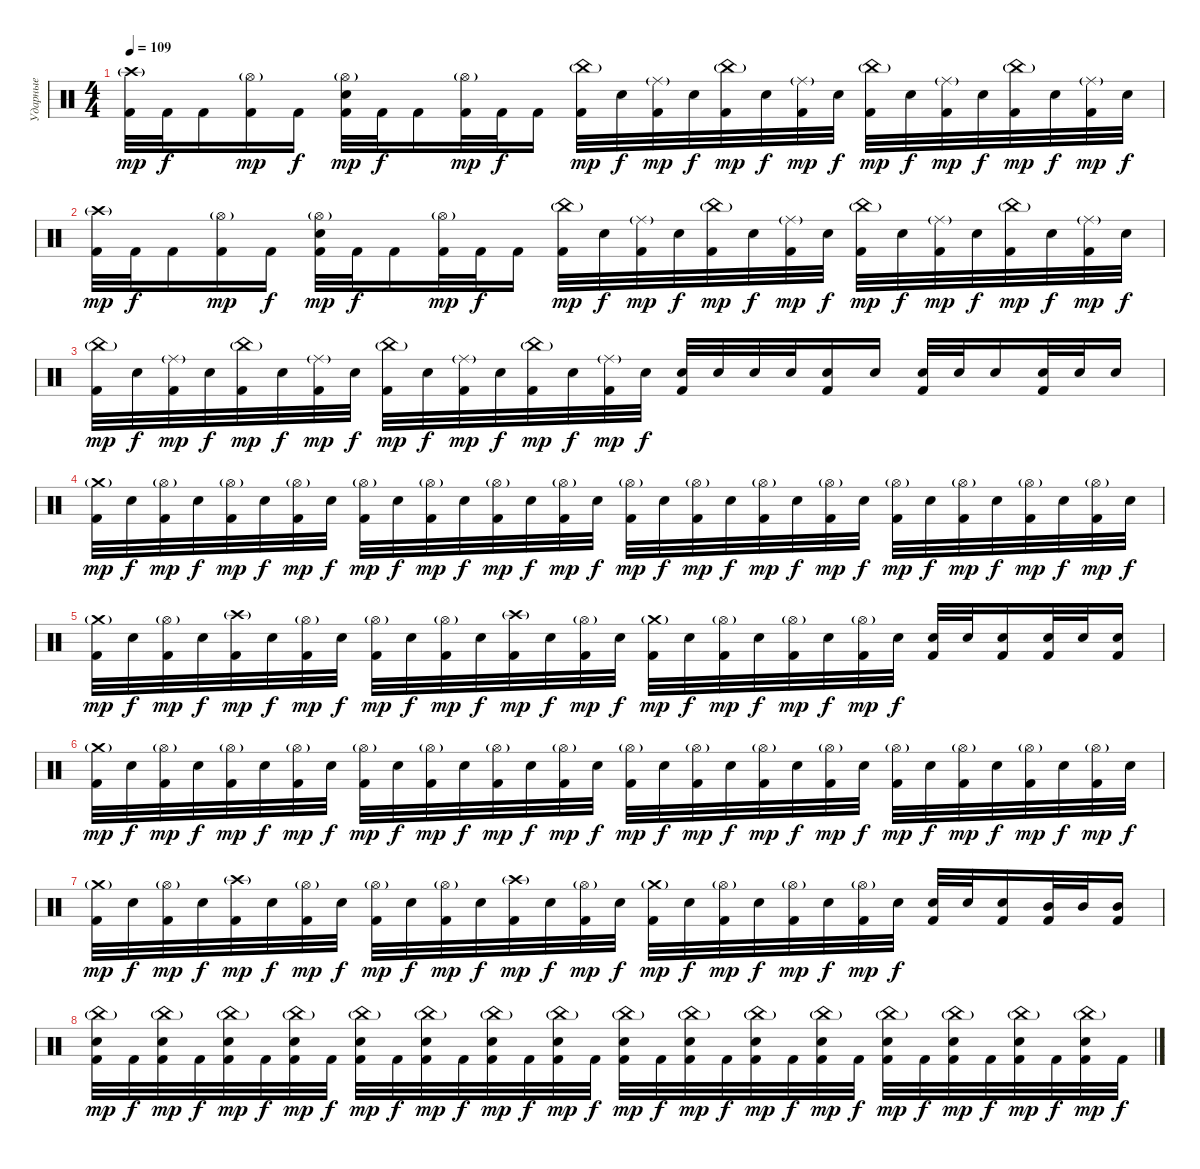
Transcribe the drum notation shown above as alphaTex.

\track ("Ударные" "Ударные") {instrument percussion}
\staff {score}
\articulation defaults
\ts (4 4)
\tempo 109
\clef neutral
\ks c
("Crash high (hit)"{g} "Kick (hit) 2").32{dy mp} "Kick (hit) 2".32{dy f} "Kick (hit) 2".16 ("Hi-Hat (open)"{g} "Kick (hit) 2").16{dy mp} "Kick (hit) 2".16{dy f} ("Hi-Hat (open)"{g} "Electric Snare (hit)" "Kick (hit) 2").32{dy mp} "Kick (hit) 2".32{dy f} "Kick (hit) 2".16 ("Hi-Hat (open)"{g} "Kick (hit) 2").32{dy mp} "Kick (hit) 2".32{dy f} "Kick (hit) 2".16 ("China (hit)"{g} "Kick (hit) 2").32{dy mp} "Electric Snare (hit)".32{dy f} ("Ride (middle)"{g} "Kick (hit) 2").32{dy mp} "Electric Snare (hit)".32{dy f} ("China (hit)"{g} "Kick (hit) 2").32{dy mp} "Electric Snare (hit)".32{dy f} ("Ride (middle)"{g} "Kick (hit) 2").32{dy mp} "Electric Snare (hit)".32{dy f} ("China (hit)"{g} "Kick (hit) 2").32{dy mp} "Electric Snare (hit)".32{dy f} ("Ride (middle)"{g} "Kick (hit) 2").32{dy mp} "Electric Snare (hit)".32{dy f} ("China (hit)"{g} "Kick (hit) 2").32{dy mp} "Electric Snare (hit)".32{dy f} ("Ride (middle)"{g} "Kick (hit) 2").32{dy mp} "Electric Snare (hit)".32{dy f} |
("Crash high (hit)"{g} "Kick (hit) 2").32{dy mp} "Kick (hit) 2".32{dy f} "Kick (hit) 2".16 ("Hi-Hat (open)"{g} "Kick (hit) 2").16{dy mp} "Kick (hit) 2".16{dy f} ("Hi-Hat (open)"{g} "Electric Snare (hit)" "Kick (hit) 2").32{dy mp} "Kick (hit) 2".32{dy f} "Kick (hit) 2".16 ("Hi-Hat (open)"{g} "Kick (hit) 2").32{dy mp} "Kick (hit) 2".32{dy f} "Kick (hit) 2".16 ("China (hit)"{g} "Kick (hit) 2").32{dy mp} "Electric Snare (hit)".32{dy f} ("Ride (middle)"{g} "Kick (hit) 2").32{dy mp} "Electric Snare (hit)".32{dy f} ("China (hit)"{g} "Kick (hit) 2").32{dy mp} "Electric Snare (hit)".32{dy f} ("Ride (middle)"{g} "Kick (hit) 2").32{dy mp} "Electric Snare (hit)".32{dy f} ("China (hit)"{g} "Kick (hit) 2").32{dy mp} "Electric Snare (hit)".32{dy f} ("Ride (middle)"{g} "Kick (hit) 2").32{dy mp} "Electric Snare (hit)".32{dy f} ("China (hit)"{g} "Kick (hit) 2").32{dy mp} "Electric Snare (hit)".32{dy f} ("Ride (middle)"{g} "Kick (hit) 2").32{dy mp} "Electric Snare (hit)".32{dy f} |
("China (hit)"{g} "Kick (hit) 2").32{dy mp} "Electric Snare (hit)".32{dy f} ("Ride (middle)"{g} "Kick (hit) 2").32{dy mp} "Electric Snare (hit)".32{dy f} ("China (hit)"{g} "Kick (hit) 2").32{dy mp} "Electric Snare (hit)".32{dy f} ("Ride (middle)"{g} "Kick (hit) 2").32{dy mp} "Electric Snare (hit)".32{dy f} ("China (hit)"{g} "Kick (hit) 2").32{dy mp} "Electric Snare (hit)".32{dy f} ("Ride (middle)"{g} "Kick (hit) 2").32{dy mp} "Electric Snare (hit)".32{dy f} ("China (hit)"{g} "Kick (hit) 2").32{dy mp} "Electric Snare (hit)".32{dy f} ("Ride (middle)"{g} "Kick (hit) 2").32{dy mp} "Electric Snare (hit)".32{dy f} ("Electric Snare (hit)" "Kick (hit) 2").32 "Electric Snare (hit)".32 "Electric Snare (hit)".32 "Electric Snare (hit)".32 ("Electric Snare (hit)" "Kick (hit) 2").16 "Electric Snare (hit)".16 ("Electric Snare (hit)" "Kick (hit) 2").32 "Electric Snare (hit)".32 "Electric Snare (hit)".16 ("Electric Snare (hit)" "Kick (hit) 2").32 "Electric Snare (hit)".32 "Electric Snare (hit)".16 |
("Crash medium (hit)"{g} "Kick (hit) 2").32{dy mp} "Electric Snare (hit)".32{dy f} ("Hi-Hat (open)"{g} "Kick (hit) 2").32{dy mp} "Electric Snare (hit)".32{dy f} ("Hi-Hat (open)"{g} "Kick (hit) 2").32{dy mp} "Electric Snare (hit)".32{dy f} ("Hi-Hat (open)"{g} "Kick (hit) 2").32{dy mp} "Electric Snare (hit)".32{dy f} ("Hi-Hat (open)"{g} "Kick (hit) 2").32{dy mp} "Electric Snare (hit)".32{dy f} ("Hi-Hat (open)"{g} "Kick (hit) 2").32{dy mp} "Electric Snare (hit)".32{dy f} ("Hi-Hat (open)"{g} "Kick (hit) 2").32{dy mp} "Electric Snare (hit)".32{dy f} ("Hi-Hat (open)"{g} "Kick (hit) 2").32{dy mp} "Electric Snare (hit)".32{dy f} ("Hi-Hat (open)"{g} "Kick (hit) 2").32{dy mp} "Electric Snare (hit)".32{dy f} ("Hi-Hat (open)"{g} "Kick (hit) 2").32{dy mp} "Electric Snare (hit)".32{dy f} ("Hi-Hat (open)"{g} "Kick (hit) 2").32{dy mp} "Electric Snare (hit)".32{dy f} ("Hi-Hat (open)"{g} "Kick (hit) 2").32{dy mp} "Electric Snare (hit)".32{dy f} ("Hi-Hat (open)"{g} "Kick (hit) 2").32{dy mp} "Electric Snare (hit)".32{dy f} ("Hi-Hat (open)"{g} "Kick (hit) 2").32{dy mp} "Electric Snare (hit)".32{dy f} ("Hi-Hat (open)"{g} "Kick (hit) 2").32{dy mp} "Electric Snare (hit)".32{dy f} ("Hi-Hat (open)"{g} "Kick (hit) 2").32{dy mp} "Electric Snare (hit)".32{dy f} |
("Crash medium (hit)"{g} "Kick (hit) 2").32{dy mp} "Electric Snare (hit)".32{dy f} ("Hi-Hat (open)"{g} "Kick (hit) 2").32{dy mp} "Electric Snare (hit)".32{dy f} ("Crash high (hit)"{g} "Kick (hit) 2").32{dy mp} "Electric Snare (hit)".32{dy f} ("Hi-Hat (open)"{g} "Kick (hit) 2").32{dy mp} "Electric Snare (hit)".32{dy f} ("Hi-Hat (open)"{g} "Kick (hit) 2").32{dy mp} "Electric Snare (hit)".32{dy f} ("Hi-Hat (open)"{g} "Kick (hit) 2").32{dy mp} "Electric Snare (hit)".32{dy f} ("Crash high (hit)"{g} "Kick (hit) 2").32{dy mp} "Electric Snare (hit)".32{dy f} ("Hi-Hat (open)"{g} "Kick (hit) 2").32{dy mp} "Electric Snare (hit)".32{dy f} ("Crash medium (hit)"{g} "Kick (hit) 2").32{dy mp} "Electric Snare (hit)".32{dy f} ("Hi-Hat (open)"{g} "Kick (hit) 2").32{dy mp} "Electric Snare (hit)".32{dy f} ("Hi-Hat (open)"{g} "Kick (hit) 2").32{dy mp} "Electric Snare (hit)".32{dy f} ("Hi-Hat (open)"{g} "Kick (hit) 2").32{dy mp} "Electric Snare (hit)".32{dy f} ("Electric Snare (hit)" "Kick (hit) 2").32 "Electric Snare (hit)".32 ("Electric Snare (hit)" "Kick (hit) 2").16 ("Electric Snare (hit)" "Kick (hit) 2").32 "Electric Snare (hit)".32 ("Electric Snare (hit)" "Kick (hit) 2").16 |
("Crash medium (hit)"{g} "Kick (hit) 2").32{dy mp} "Electric Snare (hit)".32{dy f} ("Hi-Hat (open)"{g} "Kick (hit) 2").32{dy mp} "Electric Snare (hit)".32{dy f} ("Hi-Hat (open)"{g} "Kick (hit) 2").32{dy mp} "Electric Snare (hit)".32{dy f} ("Hi-Hat (open)"{g} "Kick (hit) 2").32{dy mp} "Electric Snare (hit)".32{dy f} ("Hi-Hat (open)"{g} "Kick (hit) 2").32{dy mp} "Electric Snare (hit)".32{dy f} ("Hi-Hat (open)"{g} "Kick (hit) 2").32{dy mp} "Electric Snare (hit)".32{dy f} ("Hi-Hat (open)"{g} "Kick (hit) 2").32{dy mp} "Electric Snare (hit)".32{dy f} ("Hi-Hat (open)"{g} "Kick (hit) 2").32{dy mp} "Electric Snare (hit)".32{dy f} ("Hi-Hat (open)"{g} "Kick (hit) 2").32{dy mp} "Electric Snare (hit)".32{dy f} ("Hi-Hat (open)"{g} "Kick (hit) 2").32{dy mp} "Electric Snare (hit)".32{dy f} ("Hi-Hat (open)"{g} "Kick (hit) 2").32{dy mp} "Electric Snare (hit)".32{dy f} ("Hi-Hat (open)"{g} "Kick (hit) 2").32{dy mp} "Electric Snare (hit)".32{dy f} ("Hi-Hat (open)"{g} "Kick (hit) 2").32{dy mp} "Electric Snare (hit)".32{dy f} ("Hi-Hat (open)"{g} "Kick (hit) 2").32{dy mp} "Electric Snare (hit)".32{dy f} ("Hi-Hat (open)"{g} "Kick (hit) 2").32{dy mp} "Electric Snare (hit)".32{dy f} ("Hi-Hat (open)"{g} "Kick (hit) 2").32{dy mp} "Electric Snare (hit)".32{dy f} |
("Crash medium (hit)"{g} "Kick (hit) 2").32{dy mp} "Electric Snare (hit)".32{dy f} ("Hi-Hat (open)"{g} "Kick (hit) 2").32{dy mp} "Electric Snare (hit)".32{dy f} ("Crash high (hit)"{g} "Kick (hit) 2").32{dy mp} "Electric Snare (hit)".32{dy f} ("Hi-Hat (open)"{g} "Kick (hit) 2").32{dy mp} "Electric Snare (hit)".32{dy f} ("Hi-Hat (open)"{g} "Kick (hit) 2").32{dy mp} "Electric Snare (hit)".32{dy f} ("Hi-Hat (open)"{g} "Kick (hit) 2").32{dy mp} "Electric Snare (hit)".32{dy f} ("Crash high (hit)"{g} "Kick (hit) 2").32{dy mp} "Electric Snare (hit)".32{dy f} ("Hi-Hat (open)"{g} "Kick (hit) 2").32{dy mp} "Electric Snare (hit)".32{dy f} ("Crash medium (hit)"{g} "Kick (hit) 2").32{dy mp} "Electric Snare (hit)".32{dy f} ("Hi-Hat (open)"{g} "Kick (hit) 2").32{dy mp} "Electric Snare (hit)".32{dy f} ("Hi-Hat (open)"{g} "Kick (hit) 2").32{dy mp} "Electric Snare (hit)".32{dy f} ("Hi-Hat (open)"{g} "Kick (hit) 2").32{dy mp} "Electric Snare (hit)".32{dy f} ("Electric Snare (hit)" "Kick (hit) 2").32 "Electric Snare (hit)".32 ("Electric Snare (hit)" "Kick (hit) 2").16 ("Mid Tom (hit)" "Kick (hit) 2").32 "Mid Tom (hit)".32 ("Mid Tom (hit)" "Kick (hit) 2").16 |
("China (hit)"{g} "Electric Snare (hit)" "Kick (hit) 2").32{dy mp} "Kick (hit) 2".32{dy f} ("China (hit)"{g} "Electric Snare (hit)" "Kick (hit) 2").32{dy mp} "Kick (hit) 2".32{dy f} ("China (hit)"{g} "Electric Snare (hit)" "Kick (hit) 2").32{dy mp} "Kick (hit) 2".32{dy f} ("China (hit)"{g} "Electric Snare (hit)" "Kick (hit) 2").32{dy mp} "Kick (hit) 2".32{dy f} ("China (hit)"{g} "Electric Snare (hit)" "Kick (hit) 2").32{dy mp} "Kick (hit) 2".32{dy f} ("China (hit)"{g} "Electric Snare (hit)" "Kick (hit) 2").32{dy mp} "Kick (hit) 2".32{dy f} ("China (hit)"{g} "Electric Snare (hit)" "Kick (hit) 2").32{dy mp} "Kick (hit) 2".32{dy f} ("China (hit)"{g} "Electric Snare (hit)" "Kick (hit) 2").32{dy mp} "Kick (hit) 2".32{dy f} ("China (hit)"{g} "Electric Snare (hit)" "Kick (hit) 2").32{dy mp} "Kick (hit) 2".32{dy f} ("China (hit)"{g} "Electric Snare (hit)" "Kick (hit) 2").32{dy mp} "Kick (hit) 2".32{dy f} ("China (hit)"{g} "Electric Snare (hit)" "Kick (hit) 2").32{dy mp} "Kick (hit) 2".32{dy f} ("China (hit)"{g} "Electric Snare (hit)" "Kick (hit) 2").32{dy mp} "Kick (hit) 2".32{dy f} ("China (hit)"{g} "Electric Snare (hit)" "Kick (hit) 2").32{dy mp} "Kick (hit) 2".32{dy f} ("China (hit)"{g} "Electric Snare (hit)" "Kick (hit) 2").32{dy mp} "Kick (hit) 2".32{dy f} ("China (hit)"{g} "Electric Snare (hit)" "Kick (hit) 2").32{dy mp} "Kick (hit) 2".32{dy f} ("China (hit)"{g} "Electric Snare (hit)" "Kick (hit) 2").32{dy mp} "Kick (hit) 2".32{dy f}
